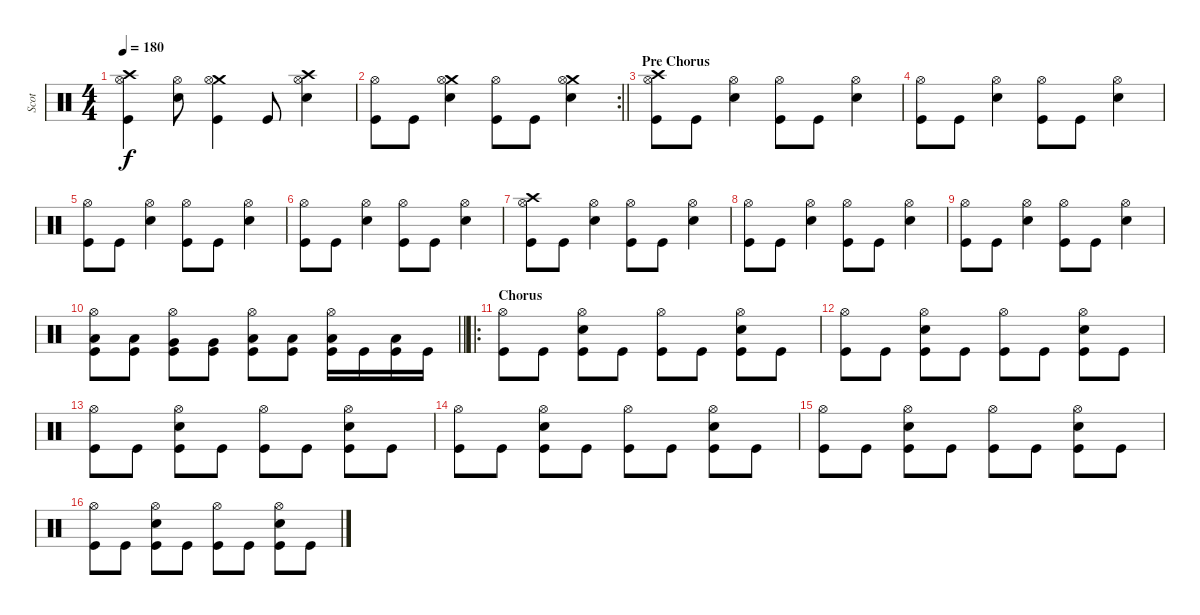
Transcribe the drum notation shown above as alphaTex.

\track ("Scot" "Scot") {instrument percussion}
\staff {score}
\articulation defaults
\ts (4 4)
\tempo 180
\clef neutral
\ks c
("Crash high (hit)" "Hi-Hat (open)" "Kick (hit)").4{dy f} ("Electric Snare (hit)" "Hi-Hat (open)").8 ("Crash medium (hit)" "Hi-Hat (open)" "Kick (hit)").4 "Kick (hit)".8 ("Crash high (hit)" "Electric Snare (hit)" "Hi-Hat (open)").4 |
\rc 2
\barLineRight lightlight
("Hi-Hat (open)" "Kick (hit)").8 "Kick (hit)".8 ("Crash medium (hit)" "Electric Snare (hit)" "Hi-Hat (open)").4 ("Hi-Hat (open)" "Kick (hit)").8 "Kick (hit)".8 ("Crash medium (hit)" "Electric Snare (hit)" "Hi-Hat (open)").4 |
\section ("" "Pre Chorus")
("Crash high (hit)" "Hi-Hat (open)" "Kick (hit)").8 "Kick (hit)".8 ("Snare (hit) 2" "Hi-Hat (open)").4 ("Hi-Hat (open)" "Kick (hit)").8 "Kick (hit)".8 ("Snare (hit) 2" "Hi-Hat (open)").4 |
("Hi-Hat (open)" "Kick (hit)").8 "Kick (hit)".8 ("Snare (hit) 2" "Hi-Hat (open)").4 ("Hi-Hat (open)" "Kick (hit)").8 "Kick (hit)".8 ("Snare (hit) 2" "Hi-Hat (open)").4 |
("Hi-Hat (open)" "Kick (hit)").8 "Kick (hit)".8 ("Snare (hit) 2" "Hi-Hat (open)").4 ("Hi-Hat (open)" "Kick (hit)").8 "Kick (hit)".8 ("Snare (hit) 2" "Hi-Hat (open)").4 |
("Hi-Hat (open)" "Kick (hit)").8 "Kick (hit)".8 ("Snare (hit) 2" "Hi-Hat (open)").4 ("Hi-Hat (open)" "Kick (hit)").8 "Kick (hit)".8 ("Snare (hit) 2" "Hi-Hat (open)").4 |
("Crash high (hit)" "Hi-Hat (open)" "Kick (hit)").8 "Kick (hit)".8 ("Snare (hit) 2" "Hi-Hat (open)").4 ("Hi-Hat (open)" "Kick (hit)").8 "Kick (hit)".8 ("Snare (hit) 2" "Hi-Hat (open)").4 |
("Hi-Hat (open)" "Kick (hit)").8 "Kick (hit)".8 ("Snare (hit) 2" "Hi-Hat (open)").4 ("Hi-Hat (open)" "Kick (hit)").8 "Kick (hit)".8 ("Snare (hit) 2" "Hi-Hat (open)").4 |
("Hi-Hat (open)" "Kick (hit)").8 "Kick (hit)".8 ("Snare (hit) 2" "Hi-Hat (open)").4 ("Hi-Hat (open)" "Kick (hit)").8 "Kick (hit)".8 ("Snare (hit) 2" "Hi-Hat (open)").4 |
\barLineRight lightlight
("Low Tom (hit)" "Hi-Hat (open)" "Kick (hit)").8 ("Low Tom (hit)" "Kick (hit)").8 ("Very Low Tom (hit)" "Hi-Hat (open)" "Kick (hit)").8 ("Very Low Tom (hit)" "Kick (hit)").8 ("Low Floor Tom (hit)" "Hi-Hat (open)" "Kick (hit)").8 ("Low Floor Tom (hit)" "Kick (hit)").8 ("Low Floor Tom (hit)" "Hi-Hat (open)" "Kick (hit)").16 "Kick (hit)".16 ("Low Floor Tom (hit)" "Kick (hit)").16 "Kick (hit)".16 |
\ro
\section ("" "Chorus")
("Hi-Hat (open)" "Kick (hit)").8 "Kick (hit)".8 ("Electric Snare (hit)" "Hi-Hat (open)" "Kick (hit)").8 "Kick (hit)".8 ("Hi-Hat (open)" "Kick (hit)").8 "Kick (hit)".8 ("Electric Snare (hit)" "Hi-Hat (open)" "Kick (hit)").8 "Kick (hit)".8 |
("Hi-Hat (open)" "Kick (hit)").8 "Kick (hit)".8 ("Electric Snare (hit)" "Hi-Hat (open)" "Kick (hit)").8 "Kick (hit)".8 ("Hi-Hat (open)" "Kick (hit)").8 "Kick (hit)".8 ("Electric Snare (hit)" "Hi-Hat (open)" "Kick (hit)").8 "Kick (hit)".8 |
("Hi-Hat (open)" "Kick (hit)").8 "Kick (hit)".8 ("Electric Snare (hit)" "Hi-Hat (open)" "Kick (hit)").8 "Kick (hit)".8 ("Hi-Hat (open)" "Kick (hit)").8 "Kick (hit)".8 ("Electric Snare (hit)" "Hi-Hat (open)" "Kick (hit)").8 "Kick (hit)".8 |
("Hi-Hat (open)" "Kick (hit)").8 "Kick (hit)".8 ("Electric Snare (hit)" "Hi-Hat (open)" "Kick (hit)").8 "Kick (hit)".8 ("Hi-Hat (open)" "Kick (hit)").8 "Kick (hit)".8 ("Electric Snare (hit)" "Hi-Hat (open)" "Kick (hit)").8 "Kick (hit)".8 |
("Hi-Hat (open)" "Kick (hit)").8 "Kick (hit)".8 ("Electric Snare (hit)" "Hi-Hat (open)" "Kick (hit)").8 "Kick (hit)".8 ("Hi-Hat (open)" "Kick (hit)").8 "Kick (hit)".8 ("Electric Snare (hit)" "Hi-Hat (open)" "Kick (hit)").8 "Kick (hit)".8 |
("Hi-Hat (open)" "Kick (hit)").8 "Kick (hit)".8 ("Electric Snare (hit)" "Hi-Hat (open)" "Kick (hit)").8 "Kick (hit)".8 ("Hi-Hat (open)" "Kick (hit)").8 "Kick (hit)".8 ("Electric Snare (hit)" "Hi-Hat (open)" "Kick (hit)").8 "Kick (hit)".8
